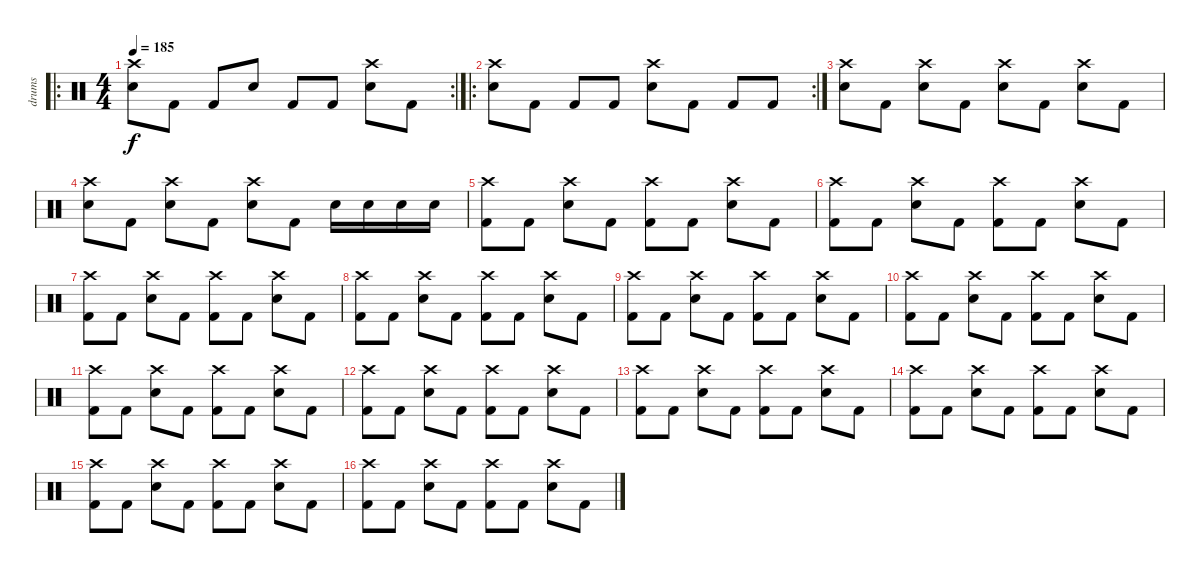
\track ("drums" "drums") {instrument percussion}
\staff {score}
\articulation defaults
\ro
\rc 2
\ts (4 4)
\tempo 185
\clef neutral
\ks c
("Electric Snare (hit)" "Crash high (hit)").8{dy f} "Kick (hit) 2".8 "Kick (hit) 2".8 "Electric Snare (hit)".8 "Kick (hit) 2".8 "Kick (hit) 2".8 ("Electric Snare (hit)" "Crash high (hit)").8 "Kick (hit) 2".8 |
\ro
\rc 2
("Electric Snare (hit)" "Crash high (hit)").8 "Kick (hit) 2".8 "Kick (hit) 2".8 "Kick (hit) 2".8 ("Electric Snare (hit)" "Crash high (hit)").8 "Kick (hit) 2".8 "Kick (hit) 2".8 "Kick (hit) 2".8 |
("Electric Snare (hit)" "Crash high (hit)").8 "Kick (hit) 2".8 ("Electric Snare (hit)" "Crash high (hit)").8 "Kick (hit) 2".8 ("Electric Snare (hit)" "Crash high (hit)").8 "Kick (hit) 2".8 ("Electric Snare (hit)" "Crash high (hit)").8 "Kick (hit) 2".8 |
("Electric Snare (hit)" "Crash high (hit)").8 "Kick (hit) 2".8 ("Electric Snare (hit)" "Crash high (hit)").8 "Kick (hit) 2".8 ("Electric Snare (hit)" "Crash high (hit)").8 "Kick (hit) 2".8 "Electric Snare (hit)".16 "Electric Snare (hit)".16 "Electric Snare (hit)".16 "Electric Snare (hit)".16 |
("Kick (hit) 2" "Crash high (hit)").8 "Kick (hit) 2".8 ("Electric Snare (hit)" "Crash high (hit)").8 "Kick (hit) 2".8 ("Kick (hit) 2" "Crash high (hit)").8 "Kick (hit) 2".8 ("Electric Snare (hit)" "Crash high (hit)").8 "Kick (hit) 2".8 |
("Kick (hit) 2" "Crash high (hit)").8 "Kick (hit) 2".8 ("Electric Snare (hit)" "Crash high (hit)").8 "Kick (hit) 2".8 ("Kick (hit) 2" "Crash high (hit)").8 "Kick (hit) 2".8 ("Electric Snare (hit)" "Crash high (hit)").8 "Kick (hit) 2".8 |
("Kick (hit) 2" "Crash high (hit)").8 "Kick (hit) 2".8 ("Electric Snare (hit)" "Crash high (hit)").8 "Kick (hit) 2".8 ("Kick (hit) 2" "Crash high (hit)").8 "Kick (hit) 2".8 ("Electric Snare (hit)" "Crash high (hit)").8 "Kick (hit) 2".8 |
("Kick (hit) 2" "Crash high (hit)").8 "Kick (hit) 2".8 ("Electric Snare (hit)" "Crash high (hit)").8 "Kick (hit) 2".8 ("Kick (hit) 2" "Crash high (hit)").8 "Kick (hit) 2".8 ("Electric Snare (hit)" "Crash high (hit)").8 "Kick (hit) 2".8 |
("Kick (hit) 2" "Crash high (hit)").8 "Kick (hit) 2".8 ("Electric Snare (hit)" "Crash high (hit)").8 "Kick (hit) 2".8 ("Kick (hit) 2" "Crash high (hit)").8 "Kick (hit) 2".8 ("Electric Snare (hit)" "Crash high (hit)").8 "Kick (hit) 2".8 |
("Kick (hit) 2" "Crash high (hit)").8 "Kick (hit) 2".8 ("Electric Snare (hit)" "Crash high (hit)").8 "Kick (hit) 2".8 ("Kick (hit) 2" "Crash high (hit)").8 "Kick (hit) 2".8 ("Electric Snare (hit)" "Crash high (hit)").8 "Kick (hit) 2".8 |
("Kick (hit) 2" "Crash high (hit)").8 "Kick (hit) 2".8 ("Electric Snare (hit)" "Crash high (hit)").8 "Kick (hit) 2".8 ("Kick (hit) 2" "Crash high (hit)").8 "Kick (hit) 2".8 ("Electric Snare (hit)" "Crash high (hit)").8 "Kick (hit) 2".8 |
("Kick (hit) 2" "Crash high (hit)").8 "Kick (hit) 2".8 ("Electric Snare (hit)" "Crash high (hit)").8 "Kick (hit) 2".8 ("Kick (hit) 2" "Crash high (hit)").8 "Kick (hit) 2".8 ("Electric Snare (hit)" "Crash high (hit)").8 "Kick (hit) 2".8 |
("Kick (hit) 2" "Crash high (hit)").8 "Kick (hit) 2".8 ("Electric Snare (hit)" "Crash high (hit)").8 "Kick (hit) 2".8 ("Kick (hit) 2" "Crash high (hit)").8 "Kick (hit) 2".8 ("Electric Snare (hit)" "Crash high (hit)").8 "Kick (hit) 2".8 |
("Kick (hit) 2" "Crash high (hit)").8 "Kick (hit) 2".8 ("Electric Snare (hit)" "Crash high (hit)").8 "Kick (hit) 2".8 ("Kick (hit) 2" "Crash high (hit)").8 "Kick (hit) 2".8 ("Electric Snare (hit)" "Crash high (hit)").8 "Kick (hit) 2".8 |
("Kick (hit) 2" "Crash high (hit)").8 "Kick (hit) 2".8 ("Electric Snare (hit)" "Crash high (hit)").8 "Kick (hit) 2".8 ("Kick (hit) 2" "Crash high (hit)").8 "Kick (hit) 2".8 ("Electric Snare (hit)" "Crash high (hit)").8 "Kick (hit) 2".8 |
("Kick (hit) 2" "Crash high (hit)").8 "Kick (hit) 2".8 ("Electric Snare (hit)" "Crash high (hit)").8 "Kick (hit) 2".8 ("Kick (hit) 2" "Crash high (hit)").8 "Kick (hit) 2".8 ("Electric Snare (hit)" "Crash high (hit)").8 "Kick (hit) 2".8
